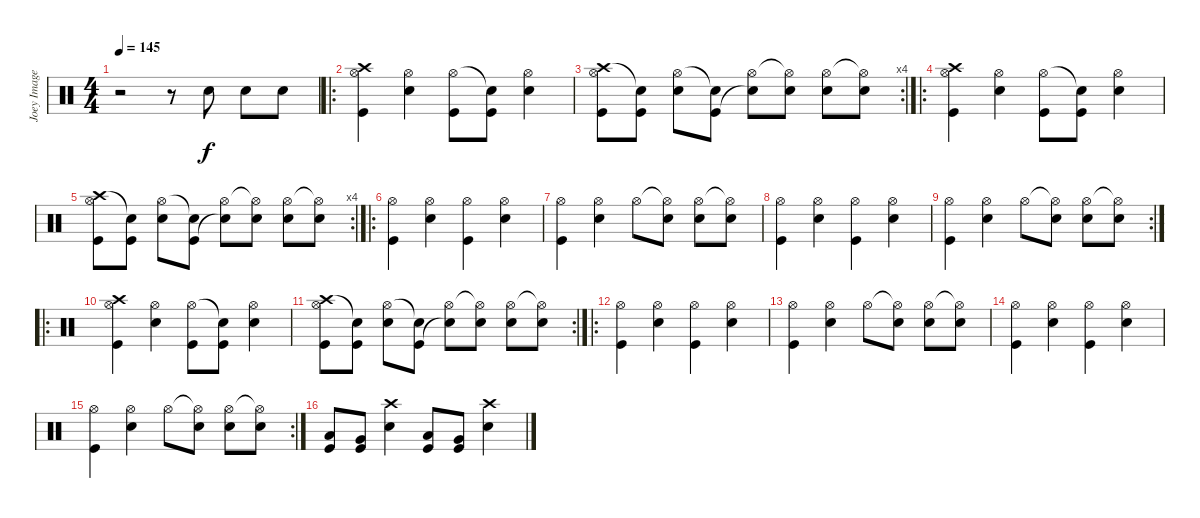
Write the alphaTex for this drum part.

\track ("Joey Image" "Joey Image") {instrument percussion}
\staff {score}
\articulation defaults
\ts (4 4)
\tempo 145
\clef neutral
\ks c
r.2{dy f} r.8 "Snare (hit) 2".8 "Snare (hit) 2".8 "Snare (hit) 2".8 |
\ro
("Crash high (hit)" "Hi-Hat (open)" "Kick (hit)").4 ("Hi-Hat (open)" "Snare (hit) 2").4 ("Hi-Hat (open)" "Kick (hit)").8 ("Snare (hit)"{t} "Kick (hit)").8 ("Hi-Hat (open)" "Snare (hit) 2").4 |
\rc 4
("Crash high (hit)" "Hi-Hat (open)" "Kick (hit)").8 ("Snare (hit)"{t} "Kick (hit)").8 ("Hi-Hat (open)" "Snare (hit) 2").8 ("Snare (hit)"{t} "Kick (hit)").8 ("Hi-Hat (open)" "Snare (hit)"{t}).8 ("Hi-Hat (open)"{t} "Snare (hit) 2").8 ("Hi-Hat (open)" "Snare (hit) 2").8 ("Hi-Hat (open)"{t} "Snare (hit) 2").8 |
\ro
("Crash high (hit)" "Hi-Hat (open)" "Kick (hit)").4 ("Hi-Hat (open)" "Snare (hit) 2").4 ("Hi-Hat (open)" "Kick (hit)").8 ("Snare (hit)"{t} "Kick (hit)").8 ("Hi-Hat (open)" "Snare (hit) 2").4 |
\rc 4
("Crash high (hit)" "Hi-Hat (open)" "Kick (hit)").8 ("Snare (hit)"{t} "Kick (hit)").8 ("Hi-Hat (open)" "Snare (hit) 2").8 ("Snare (hit)"{t} "Kick (hit)").8 ("Hi-Hat (open)" "Snare (hit)"{t}).8 ("Hi-Hat (open)"{t} "Snare (hit) 2").8 ("Hi-Hat (open)" "Snare (hit) 2").8 ("Hi-Hat (open)"{t} "Snare (hit) 2").8 |
\ro
("Hi-Hat (open)" "Kick (hit)").4 ("Hi-Hat (open)" "Snare (hit) 2").4 ("Hi-Hat (open)" "Kick (hit)").4 ("Hi-Hat (open)" "Snare (hit) 2").4 |
("Hi-Hat (open)" "Kick (hit)").4 ("Hi-Hat (open)" "Snare (hit) 2").4 "Hi-Hat (open)".8 ("Hi-Hat (open)"{t} "Snare (hit) 2").8 ("Hi-Hat (open)" "Snare (hit) 2").8 ("Hi-Hat (open)"{t} "Snare (hit) 2").8 |
("Hi-Hat (open)" "Kick (hit)").4 ("Hi-Hat (open)" "Snare (hit) 2").4 ("Hi-Hat (open)" "Kick (hit)").4 ("Hi-Hat (open)" "Snare (hit) 2").4 |
\rc 2
("Hi-Hat (open)" "Kick (hit)").4 ("Hi-Hat (open)" "Snare (hit) 2").4 "Hi-Hat (open)".8 ("Hi-Hat (open)"{t} "Snare (hit) 2").8 ("Hi-Hat (open)" "Snare (hit) 2").8 ("Hi-Hat (open)"{t} "Snare (hit) 2").8 |
\ro
("Crash high (hit)" "Hi-Hat (open)" "Kick (hit)").4 ("Hi-Hat (open)" "Snare (hit) 2").4 ("Hi-Hat (open)" "Kick (hit)").8 ("Snare (hit)"{t} "Kick (hit)").8 ("Hi-Hat (open)" "Snare (hit) 2").4 |
\rc 2
("Crash high (hit)" "Hi-Hat (open)" "Kick (hit)").8 ("Snare (hit)"{t} "Kick (hit)").8 ("Hi-Hat (open)" "Snare (hit) 2").8 ("Snare (hit)"{t} "Kick (hit)").8 ("Hi-Hat (open)" "Snare (hit)"{t}).8 ("Hi-Hat (open)"{t} "Snare (hit) 2").8 ("Hi-Hat (open)" "Snare (hit) 2").8 ("Hi-Hat (open)"{t} "Snare (hit) 2").8 |
\ro
("Hi-Hat (open)" "Kick (hit)").4 ("Hi-Hat (open)" "Snare (hit) 2").4 ("Hi-Hat (open)" "Kick (hit)").4 ("Hi-Hat (open)" "Snare (hit) 2").4 |
("Hi-Hat (open)" "Kick (hit)").4 ("Hi-Hat (open)" "Snare (hit) 2").4 "Hi-Hat (open)".8 ("Hi-Hat (open)"{t} "Snare (hit) 2").8 ("Hi-Hat (open)" "Snare (hit) 2").8 ("Hi-Hat (open)"{t} "Snare (hit) 2").8 |
("Hi-Hat (open)" "Kick (hit)").4 ("Hi-Hat (open)" "Snare (hit) 2").4 ("Hi-Hat (open)" "Kick (hit)").4 ("Hi-Hat (open)" "Snare (hit) 2").4 |
\rc 2
("Hi-Hat (open)" "Kick (hit)").4 ("Hi-Hat (open)" "Snare (hit) 2").4 "Hi-Hat (open)".8 ("Hi-Hat (open)"{t} "Snare (hit) 2").8 ("Hi-Hat (open)" "Snare (hit) 2").8 ("Hi-Hat (open)"{t} "Snare (hit) 2").8 |
("Low Tom (hit)" "Kick (hit)").8 ("Very Low Tom (hit)" "Kick (hit)").8 ("Crash high (hit)" "Snare (hit) 2").4 ("Low Tom (hit)" "Kick (hit)").8 ("Very Low Tom (hit)" "Kick (hit)").8 ("Crash high (hit)" "Snare (hit) 2").4
